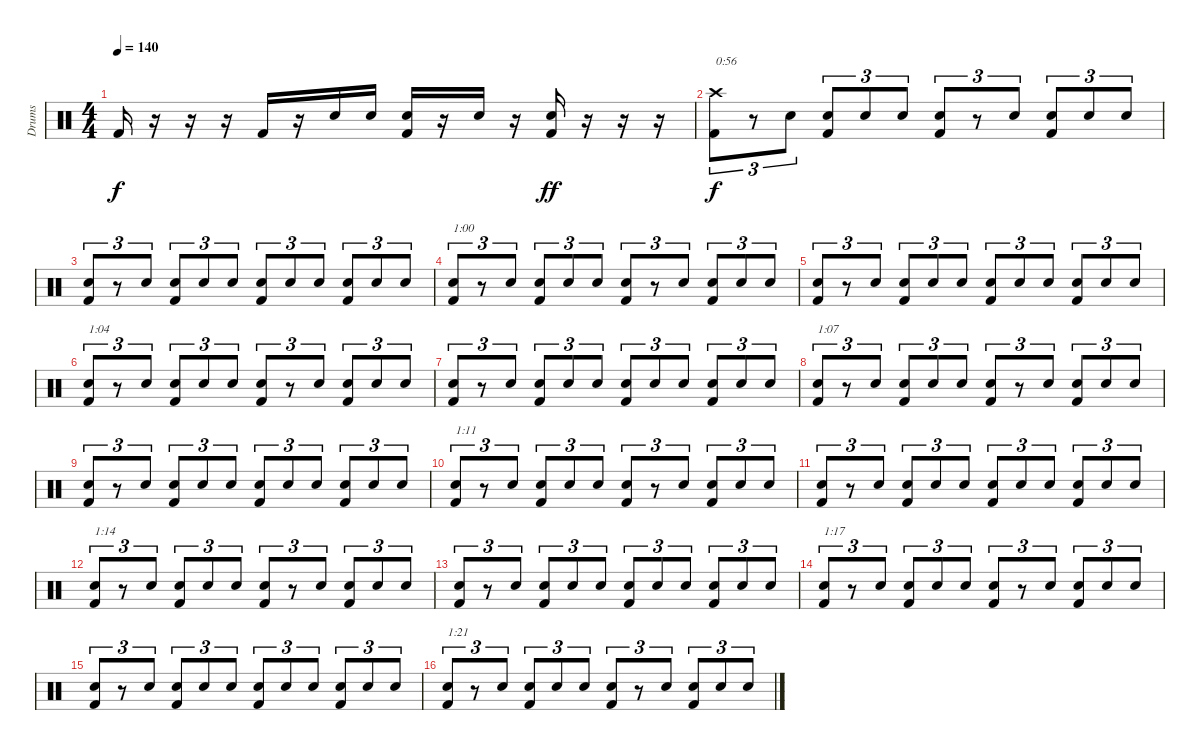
\track ("Drums" "Drums") {instrument percussion}
\staff {score}
\articulation defaults
\ts (4 4)
\tempo 140
\clef neutral
\ks c "Kick (hit) 2".16{dy f}
r.16 r.16 r.16 "Kick (hit) 2".16 r.16 "Snare (hit) 2".16 "Snare (hit) 2".16 ("Snare (hit) 2" "Kick (hit) 2").16 r.16 "Snare (hit) 2".16 r.16 ("Snare (hit) 2" "Kick (hit) 2").16{dy ff} r.16 r.16 r.16 |
("Crash high (hit)" "Kick (hit) 2").8{tu (3 2) txt "0:56" dy f} r.8{tu (3 2)} "Snare (hit) 2".8{tu (3 2)} ("Snare (hit) 2" "Kick (hit) 2").8{tu (3 2)} "Snare (hit) 2".8{tu (3 2)} "Snare (hit) 2".8{tu (3 2)} ("Snare (hit) 2" "Kick (hit) 2").8{tu (3 2)} r.8{tu (3 2)} "Snare (hit) 2".8{tu (3 2)} ("Snare (hit) 2" "Kick (hit) 2").8{tu (3 2)} "Snare (hit) 2".8{tu (3 2)} "Snare (hit) 2".8{tu (3 2)} |
("Snare (hit) 2" "Kick (hit) 2").8{tu (3 2)} r.8{tu (3 2)} "Snare (hit) 2".8{tu (3 2)} ("Snare (hit) 2" "Kick (hit) 2").8{tu (3 2)} "Snare (hit) 2".8{tu (3 2)} "Snare (hit) 2".8{tu (3 2)} ("Snare (hit) 2" "Kick (hit) 2").8{tu (3 2)} "Snare (hit) 2".8{tu (3 2)} "Snare (hit) 2".8{tu (3 2)} ("Snare (hit) 2" "Kick (hit) 2").8{tu (3 2)} "Snare (hit) 2".8{tu (3 2)} "Snare (hit) 2".8{tu (3 2)} |
("Snare (hit) 2" "Kick (hit) 2").8{tu (3 2) txt "1:00"} r.8{tu (3 2)} "Snare (hit) 2".8{tu (3 2)} ("Snare (hit) 2" "Kick (hit) 2").8{tu (3 2)} "Snare (hit) 2".8{tu (3 2)} "Snare (hit) 2".8{tu (3 2)} ("Snare (hit) 2" "Kick (hit) 2").8{tu (3 2)} r.8{tu (3 2)} "Snare (hit) 2".8{tu (3 2)} ("Snare (hit) 2" "Kick (hit) 2").8{tu (3 2)} "Snare (hit) 2".8{tu (3 2)} "Snare (hit) 2".8{tu (3 2)} |
("Snare (hit) 2" "Kick (hit) 2").8{tu (3 2)} r.8{tu (3 2)} "Snare (hit) 2".8{tu (3 2)} ("Snare (hit) 2" "Kick (hit) 2").8{tu (3 2)} "Snare (hit) 2".8{tu (3 2)} "Snare (hit) 2".8{tu (3 2)} ("Snare (hit) 2" "Kick (hit) 2").8{tu (3 2)} "Snare (hit) 2".8{tu (3 2)} "Snare (hit) 2".8{tu (3 2)} ("Snare (hit) 2" "Kick (hit) 2").8{tu (3 2)} "Snare (hit) 2".8{tu (3 2)} "Snare (hit) 2".8{tu (3 2)} |
("Snare (hit) 2" "Kick (hit) 2").8{tu (3 2) txt "1:04"} r.8{tu (3 2)} "Snare (hit) 2".8{tu (3 2)} ("Snare (hit) 2" "Kick (hit) 2").8{tu (3 2)} "Snare (hit) 2".8{tu (3 2)} "Snare (hit) 2".8{tu (3 2)} ("Snare (hit) 2" "Kick (hit) 2").8{tu (3 2)} r.8{tu (3 2)} "Snare (hit) 2".8{tu (3 2)} ("Snare (hit) 2" "Kick (hit) 2").8{tu (3 2)} "Snare (hit) 2".8{tu (3 2)} "Snare (hit) 2".8{tu (3 2)} |
("Snare (hit) 2" "Kick (hit) 2").8{tu (3 2)} r.8{tu (3 2)} "Snare (hit) 2".8{tu (3 2)} ("Snare (hit) 2" "Kick (hit) 2").8{tu (3 2)} "Snare (hit) 2".8{tu (3 2)} "Snare (hit) 2".8{tu (3 2)} ("Snare (hit) 2" "Kick (hit) 2").8{tu (3 2)} "Snare (hit) 2".8{tu (3 2)} "Snare (hit) 2".8{tu (3 2)} ("Snare (hit) 2" "Kick (hit) 2").8{tu (3 2)} "Snare (hit) 2".8{tu (3 2)} "Snare (hit) 2".8{tu (3 2)} |
("Snare (hit) 2" "Kick (hit) 2").8{tu (3 2) txt "1:07"} r.8{tu (3 2)} "Snare (hit) 2".8{tu (3 2)} ("Snare (hit) 2" "Kick (hit) 2").8{tu (3 2)} "Snare (hit) 2".8{tu (3 2)} "Snare (hit) 2".8{tu (3 2)} ("Snare (hit) 2" "Kick (hit) 2").8{tu (3 2)} r.8{tu (3 2)} "Snare (hit) 2".8{tu (3 2)} ("Snare (hit) 2" "Kick (hit) 2").8{tu (3 2)} "Snare (hit) 2".8{tu (3 2)} "Snare (hit) 2".8{tu (3 2)} |
("Snare (hit) 2" "Kick (hit) 2").8{tu (3 2)} r.8{tu (3 2)} "Snare (hit) 2".8{tu (3 2)} ("Snare (hit) 2" "Kick (hit) 2").8{tu (3 2)} "Snare (hit) 2".8{tu (3 2)} "Snare (hit) 2".8{tu (3 2)} ("Snare (hit) 2" "Kick (hit) 2").8{tu (3 2)} "Snare (hit) 2".8{tu (3 2)} "Snare (hit) 2".8{tu (3 2)} ("Snare (hit) 2" "Kick (hit) 2").8{tu (3 2)} "Snare (hit) 2".8{tu (3 2)} "Snare (hit) 2".8{tu (3 2)} |
("Snare (hit) 2" "Kick (hit) 2").8{tu (3 2) txt "1:11"} r.8{tu (3 2)} "Snare (hit) 2".8{tu (3 2)} ("Snare (hit) 2" "Kick (hit) 2").8{tu (3 2)} "Snare (hit) 2".8{tu (3 2)} "Snare (hit) 2".8{tu (3 2)} ("Snare (hit) 2" "Kick (hit) 2").8{tu (3 2)} r.8{tu (3 2)} "Snare (hit) 2".8{tu (3 2)} ("Snare (hit) 2" "Kick (hit) 2").8{tu (3 2)} "Snare (hit) 2".8{tu (3 2)} "Snare (hit) 2".8{tu (3 2)} |
("Snare (hit) 2" "Kick (hit) 2").8{tu (3 2)} r.8{tu (3 2)} "Snare (hit) 2".8{tu (3 2)} ("Snare (hit) 2" "Kick (hit) 2").8{tu (3 2)} "Snare (hit) 2".8{tu (3 2)} "Snare (hit) 2".8{tu (3 2)} ("Snare (hit) 2" "Kick (hit) 2").8{tu (3 2)} "Snare (hit) 2".8{tu (3 2)} "Snare (hit) 2".8{tu (3 2)} ("Snare (hit) 2" "Kick (hit) 2").8{tu (3 2)} "Snare (hit) 2".8{tu (3 2)} "Snare (hit) 2".8{tu (3 2)} |
("Snare (hit) 2" "Kick (hit) 2").8{tu (3 2) txt "1:14"} r.8{tu (3 2)} "Snare (hit) 2".8{tu (3 2)} ("Snare (hit) 2" "Kick (hit) 2").8{tu (3 2)} "Snare (hit) 2".8{tu (3 2)} "Snare (hit) 2".8{tu (3 2)} ("Snare (hit) 2" "Kick (hit) 2").8{tu (3 2)} r.8{tu (3 2)} "Snare (hit) 2".8{tu (3 2)} ("Snare (hit) 2" "Kick (hit) 2").8{tu (3 2)} "Snare (hit) 2".8{tu (3 2)} "Snare (hit) 2".8{tu (3 2)} |
("Snare (hit) 2" "Kick (hit) 2").8{tu (3 2)} r.8{tu (3 2)} "Snare (hit) 2".8{tu (3 2)} ("Snare (hit) 2" "Kick (hit) 2").8{tu (3 2)} "Snare (hit) 2".8{tu (3 2)} "Snare (hit) 2".8{tu (3 2)} ("Snare (hit) 2" "Kick (hit) 2").8{tu (3 2)} "Snare (hit) 2".8{tu (3 2)} "Snare (hit) 2".8{tu (3 2)} ("Snare (hit) 2" "Kick (hit) 2").8{tu (3 2)} "Snare (hit) 2".8{tu (3 2)} "Snare (hit) 2".8{tu (3 2)} |
("Snare (hit) 2" "Kick (hit) 2").8{tu (3 2) txt "1:17"} r.8{tu (3 2)} "Snare (hit) 2".8{tu (3 2)} ("Snare (hit) 2" "Kick (hit) 2").8{tu (3 2)} "Snare (hit) 2".8{tu (3 2)} "Snare (hit) 2".8{tu (3 2)} ("Snare (hit) 2" "Kick (hit) 2").8{tu (3 2)} r.8{tu (3 2)} "Snare (hit) 2".8{tu (3 2)} ("Snare (hit) 2" "Kick (hit) 2").8{tu (3 2)} "Snare (hit) 2".8{tu (3 2)} "Snare (hit) 2".8{tu (3 2)} |
("Snare (hit) 2" "Kick (hit) 2").8{tu (3 2)} r.8{tu (3 2)} "Snare (hit) 2".8{tu (3 2)} ("Snare (hit) 2" "Kick (hit) 2").8{tu (3 2)} "Snare (hit) 2".8{tu (3 2)} "Snare (hit) 2".8{tu (3 2)} ("Snare (hit) 2" "Kick (hit) 2").8{tu (3 2)} "Snare (hit) 2".8{tu (3 2)} "Snare (hit) 2".8{tu (3 2)} ("Snare (hit) 2" "Kick (hit) 2").8{tu (3 2)} "Snare (hit) 2".8{tu (3 2)} "Snare (hit) 2".8{tu (3 2)} |
("Snare (hit) 2" "Kick (hit) 2").8{tu (3 2) txt "1:21"} r.8{tu (3 2)} "Snare (hit) 2".8{tu (3 2)} ("Snare (hit) 2" "Kick (hit) 2").8{tu (3 2)} "Snare (hit) 2".8{tu (3 2)} "Snare (hit) 2".8{tu (3 2)} ("Snare (hit) 2" "Kick (hit) 2").8{tu (3 2)} r.8{tu (3 2)} "Snare (hit) 2".8{tu (3 2)} ("Snare (hit) 2" "Kick (hit) 2").8{tu (3 2)} "Snare (hit) 2".8{tu (3 2)} "Snare (hit) 2".8{tu (3 2)}
